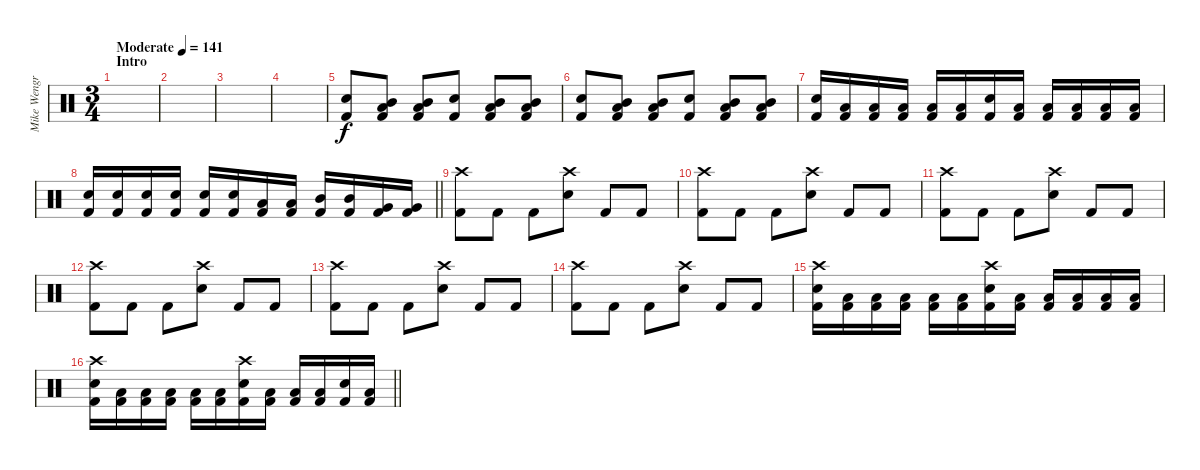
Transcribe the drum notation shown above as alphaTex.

\track ("Mike Wengren (Drums)" "Mike Wengr") {instrument percussion}
\staff {score}
\articulation defaults
\ts (3 4)
\section ("" "Intro")
\tempo (141 "Moderate")
\clef neutral
\ks c
|
|
|
|
("Electric Snare (hit)" "Kick (hit) 2").8{volume 16} ("Mid Tom (hit)" "Low Tom (hit)" "Kick (hit) 2").8 ("Mid Tom (hit)" "Low Tom (hit)" "Kick (hit) 2").8 ("Electric Snare (hit)" "Kick (hit) 2").8 ("Mid Tom (hit)" "Low Tom (hit)" "Kick (hit) 2").8 ("Mid Tom (hit)" "Low Tom (hit)" "Kick (hit) 2").8 |
("Electric Snare (hit)" "Kick (hit) 2").8 ("Mid Tom (hit)" "Low Tom (hit)" "Kick (hit) 2").8 ("Mid Tom (hit)" "Low Tom (hit)" "Kick (hit) 2").8 ("Electric Snare (hit)" "Kick (hit) 2").8 ("Mid Tom (hit)" "Low Tom (hit)" "Kick (hit) 2").8 ("Mid Tom (hit)" "Low Tom (hit)" "Kick (hit) 2").8 |
("Electric Snare (hit)" "Kick (hit) 2").16 ("Low Tom (hit)" "Kick (hit) 2").16 ("Low Tom (hit)" "Kick (hit) 2").16 ("Low Tom (hit)" "Kick (hit) 2").16 ("Low Tom (hit)" "Kick (hit) 2").16 ("Low Tom (hit)" "Kick (hit) 2").16 ("Electric Snare (hit)" "Kick (hit) 2").16 ("Low Tom (hit)" "Kick (hit) 2").16 ("Low Tom (hit)" "Kick (hit) 2").16 ("Low Tom (hit)" "Kick (hit) 2").16 ("Low Tom (hit)" "Kick (hit) 2").16 ("Low Tom (hit)" "Kick (hit) 2").16 |
\barLineRight lightlight
("Electric Snare (hit)" "Kick (hit) 2").16 ("Electric Snare (hit)" "Kick (hit) 2").16 ("Electric Snare (hit)" "Kick (hit) 2").16 ("Electric Snare (hit)" "Kick (hit) 2").16 ("Electric Snare (hit)" "Kick (hit) 2").16 ("Electric Snare (hit)" "Kick (hit) 2").16 ("Low Tom (hit)" "Kick (hit) 2").16 ("Low Tom (hit)" "Kick (hit) 2").16 ("Mid Tom (hit)" "Kick (hit) 2").16 ("Mid Tom (hit)" "Kick (hit) 2").16 ("Very Low Tom (hit)" "Kick (hit) 2").16 ("Very Low Tom (hit)" "Kick (hit) 2").16 |
("Crash high (hit)" "Kick (hit) 2").8 "Kick (hit) 2".8 "Kick (hit) 2".8 ("Crash high (hit)" "Electric Snare (hit)").8 "Kick (hit) 2".8 "Kick (hit) 2".8 |
("Crash high (hit)" "Kick (hit) 2").8 "Kick (hit) 2".8 "Kick (hit) 2".8 ("Crash high (hit)" "Electric Snare (hit)").8 "Kick (hit) 2".8 "Kick (hit) 2".8 |
("Crash high (hit)" "Kick (hit) 2").8 "Kick (hit) 2".8 "Kick (hit) 2".8 ("Crash high (hit)" "Electric Snare (hit)").8 "Kick (hit) 2".8 "Kick (hit) 2".8 |
("Crash high (hit)" "Kick (hit) 2").8 "Kick (hit) 2".8 "Kick (hit) 2".8 ("Crash high (hit)" "Electric Snare (hit)").8 "Kick (hit) 2".8 "Kick (hit) 2".8 |
("Crash high (hit)" "Kick (hit) 2").8 "Kick (hit) 2".8 "Kick (hit) 2".8 ("Crash high (hit)" "Electric Snare (hit)").8 "Kick (hit) 2".8 "Kick (hit) 2".8 |
("Crash high (hit)" "Kick (hit) 2").8 "Kick (hit) 2".8 "Kick (hit) 2".8 ("Crash high (hit)" "Electric Snare (hit)").8 "Kick (hit) 2".8 "Kick (hit) 2".8 |
("Crash high (hit)" "Electric Snare (hit)" "Kick (hit) 2").16 ("Low Tom (hit)" "Kick (hit) 2").16 ("Low Tom (hit)" "Kick (hit) 2").16 ("Low Tom (hit)" "Kick (hit) 2").16 ("Low Tom (hit)" "Kick (hit) 2").16 ("Low Tom (hit)" "Kick (hit) 2").16 ("Crash high (hit)" "Electric Snare (hit)" "Kick (hit) 2").16 ("Low Tom (hit)" "Kick (hit) 2").16 ("Low Tom (hit)" "Kick (hit) 2").16 ("Low Tom (hit)" "Kick (hit) 2").16 ("Low Tom (hit)" "Kick (hit) 2").16 ("Low Tom (hit)" "Kick (hit) 2").16 |
\barLineRight lightlight
("Crash high (hit)" "Electric Snare (hit)" "Kick (hit) 2").16 ("Low Tom (hit)" "Kick (hit) 2").16 ("Low Tom (hit)" "Kick (hit) 2").16 ("Low Tom (hit)" "Kick (hit) 2").16 ("Low Tom (hit)" "Kick (hit) 2").16 ("Low Tom (hit)" "Kick (hit) 2").16 ("Crash high (hit)" "Electric Snare (hit)" "Kick (hit) 2").16 ("Low Tom (hit)" "Kick (hit) 2").16 ("Low Tom (hit)" "Kick (hit) 2").16 ("Low Tom (hit)" "Kick (hit) 2").16 ("Electric Snare (hit)" "Kick (hit) 2").16 ("Low Tom (hit)" "Kick (hit) 2").16
